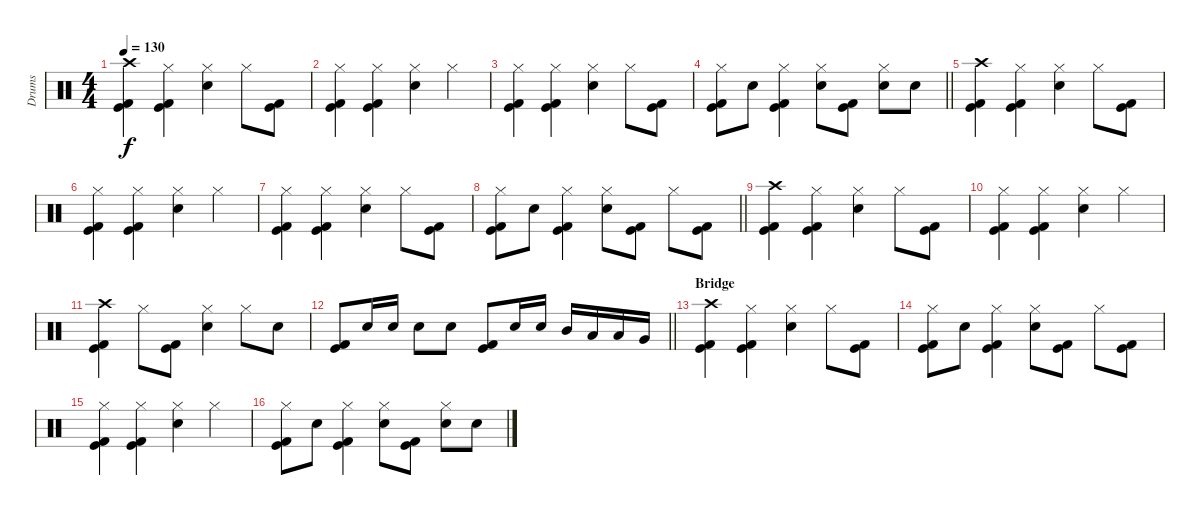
\track ("Drums" "Drums") {instrument percussion}
\staff {score}
\articulation defaults
\ts (4 4)
\tempo 130
\clef neutral
\ks c
("Crash high (hit)" "Kick (hit)" "Kick (hit) 2").4{dy f} ("Hi-Hat (closed)" "Kick (hit)" "Kick (hit) 2").4 ("Hi-Hat (closed)" "Electric Snare (hit)").4 "Hi-Hat (closed)".8 ("Kick (hit)" "Kick (hit) 2").8 |
("Hi-Hat (closed)" "Kick (hit)" "Kick (hit) 2").4 ("Hi-Hat (closed)" "Kick (hit)" "Kick (hit) 2").4 ("Hi-Hat (closed)" "Electric Snare (hit)").4 "Hi-Hat (closed)".4 |
("Hi-Hat (closed)" "Kick (hit)" "Kick (hit) 2").4 ("Hi-Hat (closed)" "Kick (hit)" "Kick (hit) 2").4 ("Hi-Hat (closed)" "Electric Snare (hit)").4 "Hi-Hat (closed)".8 ("Kick (hit)" "Kick (hit) 2").8 |
\barLineRight lightlight
("Hi-Hat (closed)" "Kick (hit)" "Kick (hit) 2").8 "Electric Snare (hit)".8 ("Hi-Hat (closed)" "Kick (hit)" "Kick (hit) 2").4 ("Hi-Hat (closed)" "Electric Snare (hit)").8 ("Kick (hit)" "Kick (hit) 2").8 ("Hi-Hat (closed)" "Electric Snare (hit)").8 "Electric Snare (hit)".8 |
("Crash high (hit)" "Kick (hit)" "Kick (hit) 2").4 ("Hi-Hat (closed)" "Kick (hit)" "Kick (hit) 2").4 ("Hi-Hat (closed)" "Electric Snare (hit)").4 "Hi-Hat (closed)".8 ("Kick (hit)" "Kick (hit) 2").8 |
("Hi-Hat (closed)" "Kick (hit)" "Kick (hit) 2").4 ("Hi-Hat (closed)" "Kick (hit)" "Kick (hit) 2").4 ("Hi-Hat (closed)" "Electric Snare (hit)").4 "Hi-Hat (closed)".4 |
("Hi-Hat (closed)" "Kick (hit)" "Kick (hit) 2").4 ("Hi-Hat (closed)" "Kick (hit)" "Kick (hit) 2").4 ("Hi-Hat (closed)" "Electric Snare (hit)").4 "Hi-Hat (closed)".8 ("Kick (hit)" "Kick (hit) 2").8 |
\barLineRight lightlight
("Hi-Hat (closed)" "Kick (hit)" "Kick (hit) 2").8 "Electric Snare (hit)".8 ("Hi-Hat (closed)" "Kick (hit)" "Kick (hit) 2").4 ("Hi-Hat (closed)" "Electric Snare (hit)").8 ("Kick (hit)" "Kick (hit) 2").8 "Hi-Hat (closed)".8 ("Kick (hit)" "Kick (hit) 2").8 |
("Crash high (hit)" "Kick (hit)" "Kick (hit) 2").4 ("Hi-Hat (closed)" "Kick (hit)" "Kick (hit) 2").4 ("Hi-Hat (closed)" "Electric Snare (hit)").4 "Hi-Hat (closed)".8 ("Kick (hit)" "Kick (hit) 2").8 |
("Hi-Hat (closed)" "Kick (hit)" "Kick (hit) 2").4 ("Hi-Hat (closed)" "Kick (hit)" "Kick (hit) 2").4 ("Hi-Hat (closed)" "Electric Snare (hit)").4 "Hi-Hat (closed)".4 |
("Crash high (hit)" "Kick (hit)" "Kick (hit) 2").4 "Hi-Hat (closed)".8 ("Kick (hit)" "Kick (hit) 2").8 ("Hi-Hat (closed)" "Electric Snare (hit)").4 "Hi-Hat (closed)".8 "Electric Snare (hit)".8 |
\barLineRight lightlight
("Kick (hit)" "Kick (hit) 2").8 "Electric Snare (hit)".16 "Electric Snare (hit)".16 "Electric Snare (hit)".8 "Electric Snare (hit)".8 ("Kick (hit)" "Kick (hit) 2").8 "Electric Snare (hit)".16 "Electric Snare (hit)".16 "Mid Tom (hit)".16 "Low Tom (hit)".16 "Low Tom (hit)".16 "Very Low Tom (hit)".16 |
\section ("" "Bridge")
("Crash high (hit)" "Kick (hit)" "Kick (hit) 2").4 ("Hi-Hat (closed)" "Kick (hit)" "Kick (hit) 2").4 ("Hi-Hat (closed)" "Electric Snare (hit)").4 "Hi-Hat (closed)".8 ("Kick (hit)" "Kick (hit) 2").8 |
("Hi-Hat (closed)" "Kick (hit)" "Kick (hit) 2").8 "Electric Snare (hit)".8 ("Hi-Hat (closed)" "Kick (hit)" "Kick (hit) 2").4 ("Hi-Hat (closed)" "Electric Snare (hit)").8 ("Kick (hit)" "Kick (hit) 2").8 "Hi-Hat (closed)".8 ("Kick (hit)" "Kick (hit) 2").8 |
("Hi-Hat (closed)" "Kick (hit)" "Kick (hit) 2").4 ("Hi-Hat (closed)" "Kick (hit)" "Kick (hit) 2").4 ("Hi-Hat (closed)" "Electric Snare (hit)").4 "Hi-Hat (closed)".4 |
("Hi-Hat (closed)" "Kick (hit)" "Kick (hit) 2").8 "Electric Snare (hit)".8 ("Hi-Hat (closed)" "Kick (hit)" "Kick (hit) 2").4 ("Hi-Hat (closed)" "Electric Snare (hit)").8 ("Kick (hit)" "Kick (hit) 2").8 ("Hi-Hat (closed)" "Electric Snare (hit)").8 "Electric Snare (hit)".8
